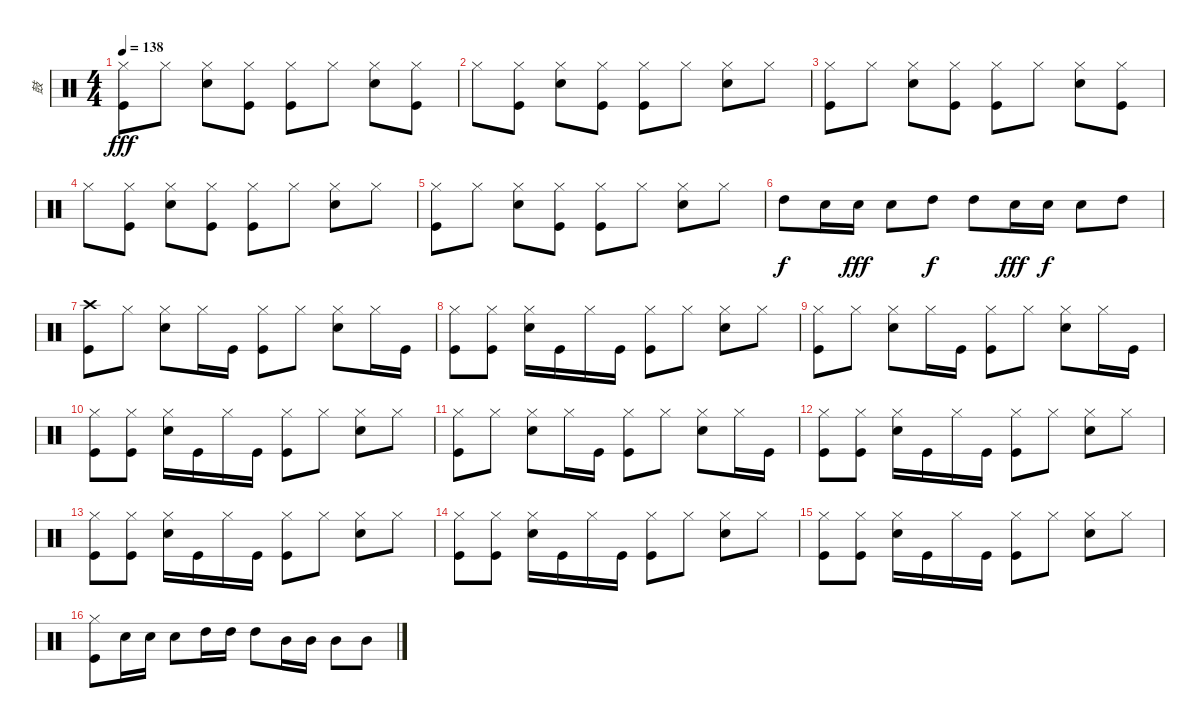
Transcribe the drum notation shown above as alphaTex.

\track ("鼓" "鼓") {instrument percussion}
\staff {score}
\articulation defaults
\ts (4 4)
\tempo 138
\clef neutral
\ks c
("Hi-Hat (closed)" "Kick (hit)").8{dy fff} "Hi-Hat (closed)".8 ("Hi-Hat (closed)" "Snare (hit) 2").8 ("Hi-Hat (closed)" "Kick (hit)").8 ("Hi-Hat (closed)" "Kick (hit)").8 "Hi-Hat (closed)".8 ("Hi-Hat (closed)" "Snare (hit) 2").8 ("Hi-Hat (closed)" "Kick (hit)").8 |
"Hi-Hat (closed)".8 ("Hi-Hat (closed)" "Kick (hit)").8 ("Hi-Hat (closed)" "Snare (hit) 2").8 ("Hi-Hat (closed)" "Kick (hit)").8 ("Hi-Hat (closed)" "Kick (hit)").8 "Hi-Hat (closed)".8 ("Hi-Hat (closed)" "Snare (hit) 2").8 "Hi-Hat (closed)".8 |
("Hi-Hat (closed)" "Kick (hit)").8 "Hi-Hat (closed)".8 ("Hi-Hat (closed)" "Snare (hit) 2").8 ("Hi-Hat (closed)" "Kick (hit)").8 ("Hi-Hat (closed)" "Kick (hit)").8 "Hi-Hat (closed)".8 ("Hi-Hat (closed)" "Snare (hit) 2").8 ("Hi-Hat (closed)" "Kick (hit)").8 |
"Hi-Hat (closed)".8 ("Hi-Hat (closed)" "Kick (hit)").8 ("Hi-Hat (closed)" "Snare (hit) 2").8 ("Hi-Hat (closed)" "Kick (hit)").8 ("Hi-Hat (closed)" "Kick (hit)").8 "Hi-Hat (closed)".8 ("Hi-Hat (closed)" "Snare (hit) 2").8 "Hi-Hat (closed)".8 |
("Hi-Hat (closed)" "Kick (hit)").8 "Hi-Hat (closed)".8 ("Hi-Hat (closed)" "Snare (hit) 2").8 ("Hi-Hat (closed)" "Kick (hit)").8 ("Hi-Hat (closed)" "Kick (hit)").8 "Hi-Hat (closed)".8 ("Hi-Hat (closed)" "Snare (hit) 2").8 "Hi-Hat (closed)".8 |
"High Tom (hit)".8{dy f} "Snare (hit) 2".16 "Snare (hit) 2".16{dy fff} "Snare (hit) 2".8 "High Tom (hit)".8{dy f} "High Tom (hit)".8 "Snare (hit) 2".16{dy fff} "Snare (hit) 2".16{dy f} "Snare (hit) 2".8 "High Tom (hit)".8 |
("Crash high (hit)" "Kick (hit)").8 "Hi-Hat (closed)".8 ("Hi-Hat (closed)" "Snare (hit) 2").8 "Hi-Hat (closed)".16 "Kick (hit)".16 ("Hi-Hat (closed)" "Kick (hit)").8 "Hi-Hat (closed)".8 ("Hi-Hat (closed)" "Snare (hit) 2").8 "Hi-Hat (closed)".16 "Kick (hit)".16 |
("Hi-Hat (closed)" "Kick (hit)").8 ("Hi-Hat (closed)" "Kick (hit)").8 ("Hi-Hat (closed)" "Snare (hit) 2").16 "Kick (hit)".16 "Hi-Hat (closed)".16 "Kick (hit)".16 ("Hi-Hat (closed)" "Kick (hit)").8 "Hi-Hat (closed)".8 ("Hi-Hat (closed)" "Snare (hit) 2").8 "Hi-Hat (closed)".8 |
("Hi-Hat (closed)" "Kick (hit)").8 "Hi-Hat (closed)".8 ("Hi-Hat (closed)" "Snare (hit) 2").8 "Hi-Hat (closed)".16 "Kick (hit)".16 ("Hi-Hat (closed)" "Kick (hit)").8 "Hi-Hat (closed)".8 ("Hi-Hat (closed)" "Snare (hit) 2").8 "Hi-Hat (closed)".16 "Kick (hit)".16 |
("Hi-Hat (closed)" "Kick (hit)").8 ("Hi-Hat (closed)" "Kick (hit)").8 ("Hi-Hat (closed)" "Snare (hit) 2").16 "Kick (hit)".16 "Hi-Hat (closed)".16 "Kick (hit)".16 ("Hi-Hat (closed)" "Kick (hit)").8 "Hi-Hat (closed)".8 ("Hi-Hat (closed)" "Snare (hit) 2").8 "Hi-Hat (closed)".8 |
("Hi-Hat (closed)" "Kick (hit)").8 "Hi-Hat (closed)".8 ("Hi-Hat (closed)" "Snare (hit) 2").8 "Hi-Hat (closed)".16 "Kick (hit)".16 ("Hi-Hat (closed)" "Kick (hit)").8 "Hi-Hat (closed)".8 ("Hi-Hat (closed)" "Snare (hit) 2").8 "Hi-Hat (closed)".16 "Kick (hit)".16 |
("Hi-Hat (closed)" "Kick (hit)").8 ("Hi-Hat (closed)" "Kick (hit)").8 ("Hi-Hat (closed)" "Snare (hit) 2").16 "Kick (hit)".16 "Hi-Hat (closed)".16 "Kick (hit)".16 ("Hi-Hat (closed)" "Kick (hit)").8 "Hi-Hat (closed)".8 ("Hi-Hat (closed)" "Snare (hit) 2").8 "Hi-Hat (closed)".8 |
("Hi-Hat (closed)" "Kick (hit)").8 ("Hi-Hat (closed)" "Kick (hit)").8 ("Hi-Hat (closed)" "Snare (hit) 2").16 "Kick (hit)".16 "Hi-Hat (closed)".16 "Kick (hit)".16 ("Hi-Hat (closed)" "Kick (hit)").8 "Hi-Hat (closed)".8 ("Hi-Hat (closed)" "Snare (hit) 2").8 "Hi-Hat (closed)".8 |
("Hi-Hat (closed)" "Kick (hit)").8 ("Hi-Hat (closed)" "Kick (hit)").8 ("Hi-Hat (closed)" "Snare (hit) 2").16 "Kick (hit)".16 "Hi-Hat (closed)".16 "Kick (hit)".16 ("Hi-Hat (closed)" "Kick (hit)").8 "Hi-Hat (closed)".8 ("Hi-Hat (closed)" "Snare (hit) 2").8 "Hi-Hat (closed)".8 |
("Hi-Hat (closed)" "Kick (hit)").8 ("Hi-Hat (closed)" "Kick (hit)").8 ("Hi-Hat (closed)" "Snare (hit) 2").16 "Kick (hit)".16 "Hi-Hat (closed)".16 "Kick (hit)".16 ("Hi-Hat (closed)" "Kick (hit)").8 "Hi-Hat (closed)".8 ("Hi-Hat (closed)" "Snare (hit) 2").8 "Hi-Hat (closed)".8 |
("Hi-Hat (closed)" "Kick (hit)").8 "Snare (hit) 2".16 "Snare (hit) 2".16 "Snare (hit) 2".8 "High Tom (hit)".16 "High Tom (hit)".16 "High Tom (hit)".8 "Mid Tom (hit)".16 "Mid Tom (hit)".16 "Mid Tom (hit)".8 "Mid Tom (hit)".8
